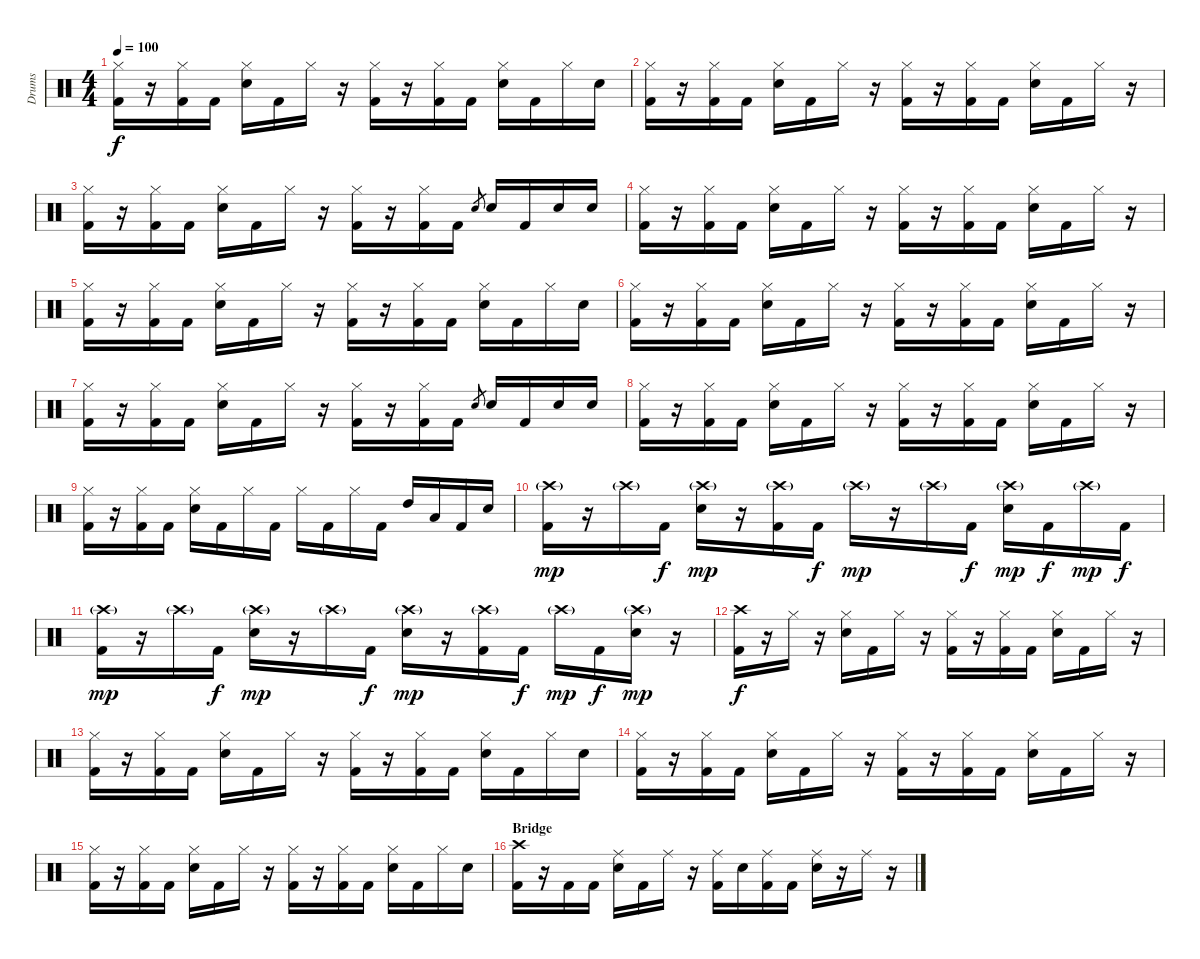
\track ("Drums" "Drums") {instrument percussion}
\staff {score}
\articulation defaults
\ts (4 4)
\tempo 100
\clef neutral
\ks c
("Hi-Hat (closed)" "Kick (hit) 2").16{dy f} r.16 ("Hi-Hat (closed)" "Kick (hit) 2").16 "Kick (hit) 2".16 ("Hi-Hat (closed)" "Electric Snare (hit)").16 "Kick (hit) 2".16 "Hi-Hat (closed)".16 r.16 ("Hi-Hat (closed)" "Kick (hit) 2").16 r.16 ("Hi-Hat (closed)" "Kick (hit) 2").16 "Kick (hit) 2".16 ("Hi-Hat (closed)" "Electric Snare (hit)").16 "Kick (hit) 2".16 "Hi-Hat (closed)".16 "Electric Snare (hit)".16 |
("Hi-Hat (closed)" "Kick (hit) 2").16 r.16 ("Hi-Hat (closed)" "Kick (hit) 2").16 "Kick (hit) 2".16 ("Hi-Hat (closed)" "Electric Snare (hit)").16 "Kick (hit) 2".16 "Hi-Hat (closed)".16 r.16 ("Hi-Hat (closed)" "Kick (hit) 2").16 r.16 ("Hi-Hat (closed)" "Kick (hit) 2").16 "Kick (hit) 2".16 ("Hi-Hat (closed)" "Electric Snare (hit)").16 "Kick (hit) 2".16 "Hi-Hat (closed)".16 r.16 |
("Hi-Hat (closed)" "Kick (hit) 2").16 r.16 ("Hi-Hat (closed)" "Kick (hit) 2").16 "Kick (hit) 2".16 ("Hi-Hat (closed)" "Electric Snare (hit)").16 "Kick (hit) 2".16 "Hi-Hat (closed)".16 r.16 ("Hi-Hat (closed)" "Kick (hit) 2").16 r.16 ("Hi-Hat (closed)" "Kick (hit) 2").16 "Kick (hit) 2".16 "Electric Snare (hit)".8{gr} "Electric Snare (hit)".16 "Kick (hit) 2".16 "Electric Snare (hit)".16 "Electric Snare (hit)".16 |
("Hi-Hat (closed)" "Kick (hit) 2").16 r.16 ("Hi-Hat (closed)" "Kick (hit) 2").16 "Kick (hit) 2".16 ("Hi-Hat (closed)" "Electric Snare (hit)").16 "Kick (hit) 2".16 "Hi-Hat (closed)".16 r.16 ("Hi-Hat (closed)" "Kick (hit) 2").16 r.16 ("Hi-Hat (closed)" "Kick (hit) 2").16 "Kick (hit) 2".16 ("Hi-Hat (closed)" "Electric Snare (hit)").16 "Kick (hit) 2".16 "Hi-Hat (closed)".16 r.16 |
("Hi-Hat (closed)" "Kick (hit) 2").16 r.16 ("Hi-Hat (closed)" "Kick (hit) 2").16 "Kick (hit) 2".16 ("Hi-Hat (closed)" "Electric Snare (hit)").16 "Kick (hit) 2".16 "Hi-Hat (closed)".16 r.16 ("Hi-Hat (closed)" "Kick (hit) 2").16 r.16 ("Hi-Hat (closed)" "Kick (hit) 2").16 "Kick (hit) 2".16 ("Hi-Hat (closed)" "Electric Snare (hit)").16 "Kick (hit) 2".16 "Hi-Hat (closed)".16 "Electric Snare (hit)".16 |
("Hi-Hat (closed)" "Kick (hit) 2").16 r.16 ("Hi-Hat (closed)" "Kick (hit) 2").16 "Kick (hit) 2".16 ("Hi-Hat (closed)" "Electric Snare (hit)").16 "Kick (hit) 2".16 "Hi-Hat (closed)".16 r.16 ("Hi-Hat (closed)" "Kick (hit) 2").16 r.16 ("Hi-Hat (closed)" "Kick (hit) 2").16 "Kick (hit) 2".16 ("Hi-Hat (closed)" "Electric Snare (hit)").16 "Kick (hit) 2".16 "Hi-Hat (closed)".16 r.16 |
("Hi-Hat (closed)" "Kick (hit) 2").16 r.16 ("Hi-Hat (closed)" "Kick (hit) 2").16 "Kick (hit) 2".16 ("Hi-Hat (closed)" "Electric Snare (hit)").16 "Kick (hit) 2".16 "Hi-Hat (closed)".16 r.16 ("Hi-Hat (closed)" "Kick (hit) 2").16 r.16 ("Hi-Hat (closed)" "Kick (hit) 2").16 "Kick (hit) 2".16 "Electric Snare (hit)".8{gr} "Electric Snare (hit)".16 "Kick (hit) 2".16 "Electric Snare (hit)".16 "Electric Snare (hit)".16 |
("Hi-Hat (closed)" "Kick (hit) 2").16 r.16 ("Hi-Hat (closed)" "Kick (hit) 2").16 "Kick (hit) 2".16 ("Hi-Hat (closed)" "Electric Snare (hit)").16 "Kick (hit) 2".16 "Hi-Hat (closed)".16 r.16 ("Hi-Hat (closed)" "Kick (hit) 2").16 r.16 ("Hi-Hat (closed)" "Kick (hit) 2").16 "Kick (hit) 2".16 ("Hi-Hat (closed)" "Electric Snare (hit)").16 "Kick (hit) 2".16 "Hi-Hat (closed)".16 r.16 |
("Hi-Hat (closed)" "Kick (hit) 2").16 r.16 ("Hi-Hat (closed)" "Kick (hit) 2").16 "Kick (hit) 2".16 ("Hi-Hat (closed)" "Electric Snare (hit)").16 "Kick (hit) 2".16 "Hi-Hat (closed)".16 "Kick (hit) 2".16 "Hi-Hat (closed)".16 "Kick (hit) 2".16 "Hi-Hat (closed)".16 "Kick (hit) 2".16 "High Tom (hit)".16 "Low Tom (hit)".16 "Kick (hit) 2".16 "Electric Snare (hit)".16 |
("Crash high (hit)"{g} "Kick (hit) 2").16{dy mp} r.16 "Crash high (hit)"{g}.16 "Kick (hit) 2".16{dy f} ("Crash high (hit)"{g} "Electric Snare (hit)").16{dy mp} r.16 ("Crash high (hit)"{g} "Kick (hit) 2").16 "Kick (hit) 2".16{dy f} "Crash high (hit)"{g}.16{dy mp} r.16 "Crash high (hit)"{g}.16 "Kick (hit) 2".16{dy f} ("Crash high (hit)"{g} "Electric Snare (hit)").16{dy mp} "Kick (hit) 2".16{dy f} "Crash high (hit)"{g}.16{dy mp} "Kick (hit) 2".16{dy f} |
("Crash high (hit)"{g} "Kick (hit) 2").16{dy mp} r.16 "Crash high (hit)"{g}.16 "Kick (hit) 2".16{dy f} ("Crash high (hit)"{g} "Electric Snare (hit)").16{dy mp} r.16 "Crash high (hit)"{g}.16 "Kick (hit) 2".16{dy f} ("Crash high (hit)"{g} "Electric Snare (hit)").16{dy mp} r.16 ("Crash high (hit)"{g} "Kick (hit) 2").16 "Kick (hit) 2".16{dy f} "Crash high (hit)"{g}.16{dy mp} "Kick (hit) 2".16{dy f} ("Crash high (hit)"{g} "Electric Snare (hit)").16{dy mp} r.16 |
("Crash high (hit)" "Kick (hit) 2").16{dy f} r.16 "Hi-Hat (closed)".16 r.16 ("Hi-Hat (closed)" "Electric Snare (hit)").16 "Kick (hit) 2".16 "Hi-Hat (closed)".16 r.16 ("Hi-Hat (closed)" "Kick (hit) 2").16 r.16 ("Hi-Hat (closed)" "Kick (hit) 2").16 "Kick (hit) 2".16 ("Hi-Hat (closed)" "Electric Snare (hit)").16 "Kick (hit) 2".16 "Hi-Hat (closed)".16 r.16 |
("Hi-Hat (closed)" "Kick (hit) 2").16 r.16 ("Hi-Hat (closed)" "Kick (hit) 2").16 "Kick (hit) 2".16 ("Hi-Hat (closed)" "Electric Snare (hit)").16 "Kick (hit) 2".16 "Hi-Hat (closed)".16 r.16 ("Hi-Hat (closed)" "Kick (hit) 2").16 r.16 ("Hi-Hat (closed)" "Kick (hit) 2").16 "Kick (hit) 2".16 ("Hi-Hat (closed)" "Electric Snare (hit)").16 "Kick (hit) 2".16 "Hi-Hat (closed)".16 "Electric Snare (hit)".16 |
("Hi-Hat (closed)" "Kick (hit) 2").16 r.16 ("Hi-Hat (closed)" "Kick (hit) 2").16 "Kick (hit) 2".16 ("Hi-Hat (closed)" "Electric Snare (hit)").16 "Kick (hit) 2".16 "Hi-Hat (closed)".16 r.16 ("Hi-Hat (closed)" "Kick (hit) 2").16 r.16 ("Hi-Hat (closed)" "Kick (hit) 2").16 "Kick (hit) 2".16 ("Hi-Hat (closed)" "Electric Snare (hit)").16 "Kick (hit) 2".16 "Hi-Hat (closed)".16 r.16 |
("Hi-Hat (closed)" "Kick (hit) 2").16 r.16 ("Hi-Hat (closed)" "Kick (hit) 2").16 "Kick (hit) 2".16 ("Hi-Hat (closed)" "Electric Snare (hit)").16 "Kick (hit) 2".16 "Hi-Hat (closed)".16 r.16 ("Hi-Hat (closed)" "Kick (hit) 2").16 r.16 ("Hi-Hat (closed)" "Kick (hit) 2").16 "Kick (hit) 2".16 ("Hi-Hat (closed)" "Electric Snare (hit)").16 "Kick (hit) 2".16 "Hi-Hat (closed)".16 "Electric Snare (hit)".16 |
\section ("" "Bridge")
("Crash high (hit)" "Kick (hit) 2").16 r.16 "Kick (hit) 2".16 "Kick (hit) 2".16 ("Ride (middle)" "Electric Snare (hit)").16 "Kick (hit) 2".16 "Ride (middle)".16 r.16 ("Ride (middle)" "Kick (hit) 2").16 "Electric Snare (hit)".16 ("Ride (middle)" "Kick (hit) 2").16 "Kick (hit) 2".16 ("Ride (middle)" "Electric Snare (hit)").16 r.16 "Ride (middle)".16 r.16
